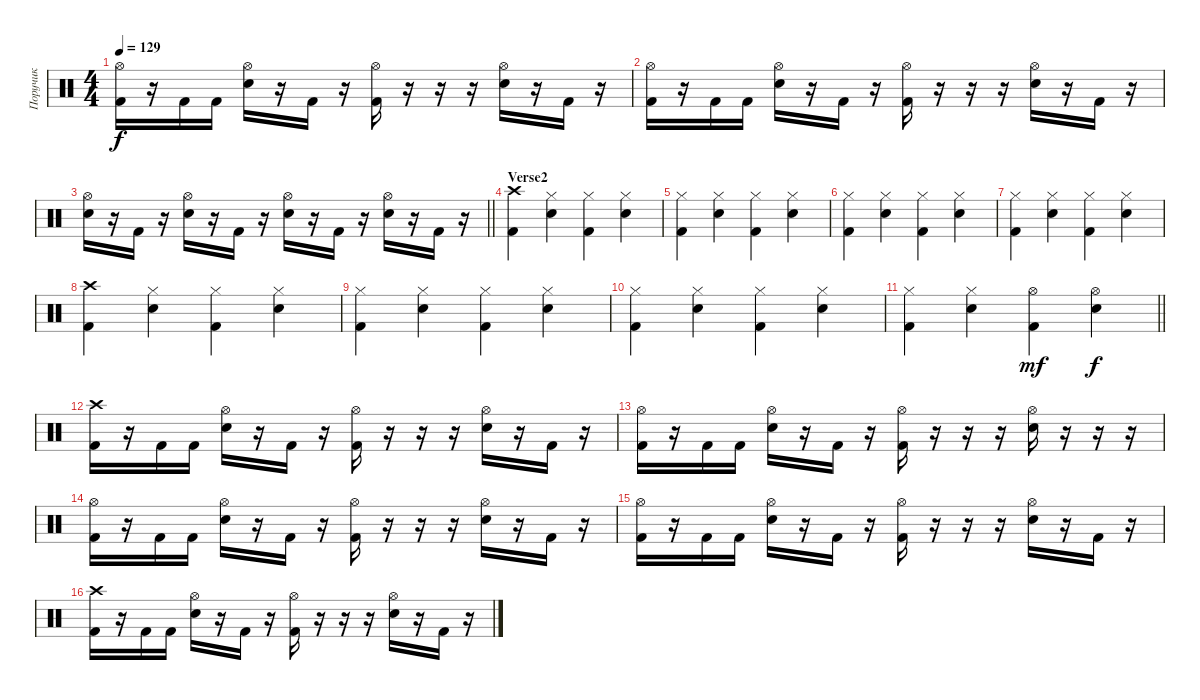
\track ("Поручик" "Поручик") {instrument percussion}
\staff {score}
\articulation defaults
\ts (4 4)
\tempo 129
\clef neutral
\ks c
("Hi-Hat (open)" "Kick (hit) 2").16{dy f} r.16 "Kick (hit) 2".16 "Kick (hit) 2".16 ("Hi-Hat (open)" "Snare (hit) 2").16 r.16 "Kick (hit) 2".16 r.16 ("Hi-Hat (open)" "Kick (hit) 2").16 r.16 r.16 r.16 ("Hi-Hat (open)" "Snare (hit) 2").16 r.16 "Kick (hit) 2".16 r.16 |
("Hi-Hat (open)" "Kick (hit) 2").16 r.16 "Kick (hit) 2".16 "Kick (hit) 2".16 ("Hi-Hat (open)" "Snare (hit) 2").16 r.16 "Kick (hit) 2".16 r.16 ("Hi-Hat (open)" "Kick (hit) 2").16 r.16 r.16 r.16 ("Hi-Hat (open)" "Snare (hit) 2").16 r.16 "Kick (hit) 2".16 r.16 |
\barLineRight lightlight
("Hi-Hat (open)" "Snare (hit) 2").16 r.16 "Kick (hit) 2".16 r.16 ("Hi-Hat (open)" "Snare (hit) 2").16 r.16 "Kick (hit) 2".16 r.16 ("Hi-Hat (open)" "Snare (hit) 2").16 r.16 "Kick (hit) 2".16 r.16 ("Hi-Hat (open)" "Snare (hit) 2").16 r.16 "Kick (hit) 2".16 r.16 |
\section ("" "Verse2")
("Crash high (hit)" "Kick (hit) 2").4 ("Hi-Hat (closed)" "Snare (hit) 2").4 ("Hi-Hat (closed)" "Kick (hit) 2").4 ("Hi-Hat (closed)" "Snare (hit) 2").4 |
("Hi-Hat (closed)" "Kick (hit) 2").4 ("Hi-Hat (closed)" "Snare (hit) 2").4 ("Hi-Hat (closed)" "Kick (hit) 2").4 ("Hi-Hat (closed)" "Snare (hit) 2").4 |
("Hi-Hat (closed)" "Kick (hit) 2").4 ("Hi-Hat (closed)" "Snare (hit) 2").4 ("Hi-Hat (closed)" "Kick (hit) 2").4 ("Hi-Hat (closed)" "Snare (hit) 2").4 |
("Hi-Hat (closed)" "Kick (hit) 2").4 ("Hi-Hat (closed)" "Snare (hit) 2").4 ("Hi-Hat (closed)" "Kick (hit) 2").4 ("Hi-Hat (closed)" "Snare (hit) 2").4 |
("Crash high (hit)" "Kick (hit) 2").4 ("Hi-Hat (closed)" "Snare (hit) 2").4 ("Hi-Hat (closed)" "Kick (hit) 2").4 ("Hi-Hat (closed)" "Snare (hit) 2").4 |
("Hi-Hat (closed)" "Kick (hit) 2").4 ("Hi-Hat (closed)" "Snare (hit) 2").4 ("Hi-Hat (closed)" "Kick (hit) 2").4 ("Hi-Hat (closed)" "Snare (hit) 2").4 |
("Hi-Hat (closed)" "Kick (hit) 2").4 ("Hi-Hat (closed)" "Snare (hit) 2").4 ("Hi-Hat (closed)" "Kick (hit) 2").4 ("Hi-Hat (closed)" "Snare (hit) 2").4 |
\barLineRight lightlight
("Hi-Hat (closed)" "Kick (hit) 2").4 ("Hi-Hat (closed)" "Snare (hit) 2").4 ("Hi-Hat (open)" "Kick (hit) 2").4{dy mf} ("Hi-Hat (open)" "Snare (hit) 2").4{dy f} |
("Crash high (hit)" "Kick (hit) 2").16 r.16 "Kick (hit) 2".16 "Kick (hit) 2".16 ("Hi-Hat (open)" "Snare (hit) 2").16 r.16 "Kick (hit) 2".16 r.16 ("Hi-Hat (open)" "Kick (hit) 2").16 r.16 r.16 r.16 ("Hi-Hat (open)" "Snare (hit) 2").16 r.16 "Kick (hit) 2".16 r.16 |
("Hi-Hat (open)" "Kick (hit) 2").16 r.16 "Kick (hit) 2".16 "Kick (hit) 2".16 ("Hi-Hat (open)" "Snare (hit) 2").16 r.16 "Kick (hit) 2".16 r.16 ("Hi-Hat (open)" "Kick (hit) 2").16 r.16 r.16 r.16 ("Hi-Hat (open)" "Snare (hit) 2").16 r.16 r.16 r.16 |
("Hi-Hat (open)" "Kick (hit) 2").16 r.16 "Kick (hit) 2".16 "Kick (hit) 2".16 ("Hi-Hat (open)" "Snare (hit) 2").16 r.16 "Kick (hit) 2".16 r.16 ("Hi-Hat (open)" "Kick (hit) 2").16 r.16 r.16 r.16 ("Hi-Hat (open)" "Snare (hit) 2").16 r.16 "Kick (hit) 2".16 r.16 |
("Hi-Hat (open)" "Kick (hit) 2").16 r.16 "Kick (hit) 2".16 "Kick (hit) 2".16 ("Hi-Hat (open)" "Snare (hit) 2").16 r.16 "Kick (hit) 2".16 r.16 ("Hi-Hat (open)" "Kick (hit) 2").16 r.16 r.16 r.16 ("Hi-Hat (open)" "Snare (hit) 2").16 r.16 "Kick (hit) 2".16 r.16 |
("Crash high (hit)" "Kick (hit) 2").16 r.16 "Kick (hit) 2".16 "Kick (hit) 2".16 ("Hi-Hat (open)" "Snare (hit) 2").16 r.16 "Kick (hit) 2".16 r.16 ("Hi-Hat (open)" "Kick (hit) 2").16 r.16 r.16 r.16 ("Hi-Hat (open)" "Snare (hit) 2").16 r.16 "Kick (hit) 2".16 r.16
